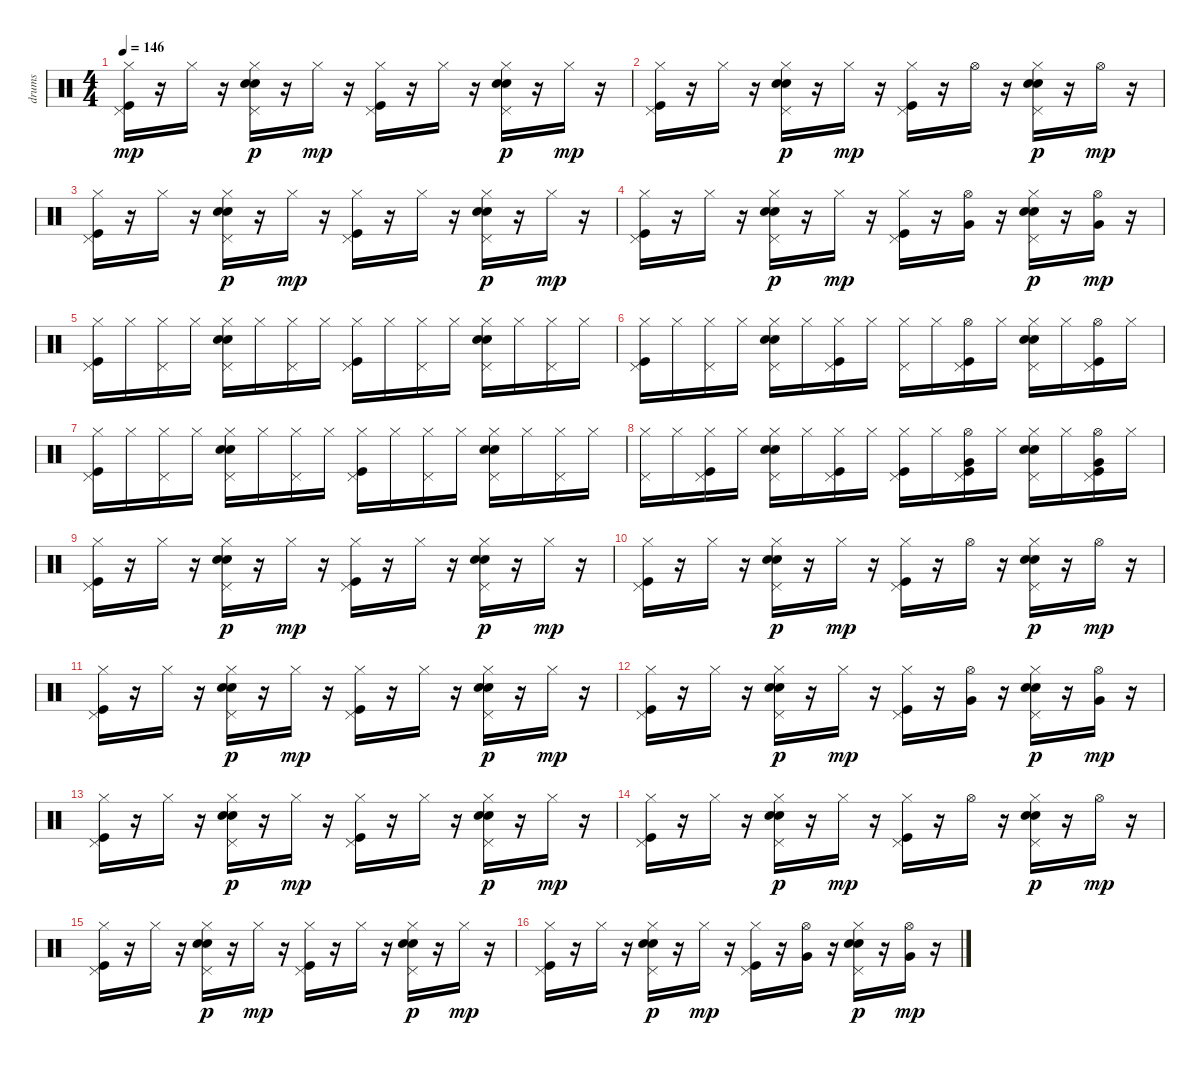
\track ("drums" "drums") {instrument percussion}
\staff {score}
\articulation defaults
\ts (4 4)
\tempo 146
\clef neutral
\ks c
("Kick (hit)" "Pedal Hi-Hat (hit)" "Hi-Hat (closed)").16{dy mp} r.16 "Hi-Hat (closed)".16 r.16 ("Pedal Hi-Hat (hit)" "Snare (hit) 2" "Hi-Hat (closed)" "Electric Snare (hit)").16{dy p} r.16 "Hi-Hat (closed)".16{dy mp} r.16 ("Kick (hit)" "Pedal Hi-Hat (hit)" "Hi-Hat (closed)").16 r.16 "Hi-Hat (closed)".16 r.16 ("Pedal Hi-Hat (hit)" "Snare (hit) 2" "Hi-Hat (closed)" "Electric Snare (hit)").16{dy p} r.16 "Hi-Hat (closed)".16{dy mp} r.16 |
("Kick (hit)" "Pedal Hi-Hat (hit)" "Hi-Hat (closed)").16 r.16 "Hi-Hat (closed)".16 r.16 ("Pedal Hi-Hat (hit)" "Snare (hit) 2" "Hi-Hat (closed)" "Electric Snare (hit)").16{dy p} r.16 "Hi-Hat (closed)".16{dy mp} r.16 ("Kick (hit)" "Pedal Hi-Hat (hit)" "Hi-Hat (closed)").16 r.16 "Hi-Hat (open)".16 r.16 ("Pedal Hi-Hat (hit)" "Snare (hit) 2" "Hi-Hat (closed)" "Electric Snare (hit)").16{dy p} r.16 "Hi-Hat (open)".16{dy mp} r.16 |
("Kick (hit)" "Pedal Hi-Hat (hit)" "Hi-Hat (closed)").16 r.16 "Hi-Hat (closed)".16 r.16 ("Pedal Hi-Hat (hit)" "Snare (hit) 2" "Hi-Hat (closed)" "Electric Snare (hit)").16{dy p} r.16 "Hi-Hat (closed)".16{dy mp} r.16 ("Kick (hit)" "Pedal Hi-Hat (hit)" "Hi-Hat (closed)").16 r.16 "Hi-Hat (closed)".16 r.16 ("Pedal Hi-Hat (hit)" "Snare (hit) 2" "Hi-Hat (closed)" "Electric Snare (hit)").16{dy p} r.16 "Hi-Hat (closed)".16{dy mp} r.16 |
("Kick (hit)" "Pedal Hi-Hat (hit)" "Hi-Hat (closed)").16 r.16 "Hi-Hat (closed)".16 r.16 ("Pedal Hi-Hat (hit)" "Snare (hit) 2" "Hi-Hat (closed)" "Electric Snare (hit)").16{dy p} r.16 "Hi-Hat (closed)".16{dy mp} r.16 ("Kick (hit)" "Pedal Hi-Hat (hit)" "Hi-Hat (closed)").16 r.16 ("Hi-Hat (open)" "Very Low Tom (hit)").16 r.16 ("Pedal Hi-Hat (hit)" "Snare (hit) 2" "Hi-Hat (closed)" "Electric Snare (hit)").16{dy p} r.16 ("Hi-Hat (open)" "Very Low Tom (hit)").16{dy mp} r.16 |
("Kick (hit)" "Pedal Hi-Hat (hit)" "Hi-Hat (closed)").16 "Hi-Hat (closed)".16 ("Hi-Hat (closed)" "Pedal Hi-Hat (hit)").16 "Hi-Hat (closed)".16 ("Snare (hit) 2" "Hi-Hat (closed)" "Electric Snare (hit)" "Pedal Hi-Hat (hit)").16 "Hi-Hat (closed)".16 ("Hi-Hat (closed)" "Pedal Hi-Hat (hit)").16 "Hi-Hat (closed)".16 ("Kick (hit)" "Hi-Hat (closed)" "Pedal Hi-Hat (hit)").16 "Hi-Hat (closed)".16 ("Hi-Hat (closed)" "Pedal Hi-Hat (hit)").16 "Hi-Hat (closed)".16 ("Snare (hit) 2" "Hi-Hat (closed)" "Electric Snare (hit)" "Pedal Hi-Hat (hit)").16 "Hi-Hat (closed)".16 ("Hi-Hat (closed)" "Pedal Hi-Hat (hit)").16 "Hi-Hat (closed)".16 |
("Kick (hit)" "Hi-Hat (closed)" "Pedal Hi-Hat (hit)").16 "Hi-Hat (closed)".16 ("Hi-Hat (closed)" "Pedal Hi-Hat (hit)").16 "Hi-Hat (closed)".16 ("Snare (hit) 2" "Hi-Hat (closed)" "Electric Snare (hit)" "Pedal Hi-Hat (hit)").16 "Hi-Hat (closed)".16 ("Hi-Hat (closed)" "Pedal Hi-Hat (hit)" "Kick (hit)").16 "Hi-Hat (closed)".16 ("Hi-Hat (closed)" "Pedal Hi-Hat (hit)").16 "Hi-Hat (closed)".16 ("Hi-Hat (open)" "Kick (hit)" "Pedal Hi-Hat (hit)").16 "Hi-Hat (closed)".16 ("Snare (hit) 2" "Hi-Hat (closed)" "Electric Snare (hit)" "Pedal Hi-Hat (hit)").16 "Hi-Hat (closed)".16 ("Hi-Hat (open)" "Kick (hit)" "Pedal Hi-Hat (hit)").16 "Hi-Hat (closed)".16 |
("Kick (hit)" "Hi-Hat (closed)" "Pedal Hi-Hat (hit)").16 "Hi-Hat (closed)".16 ("Hi-Hat (closed)" "Pedal Hi-Hat (hit)").16 "Hi-Hat (closed)".16 ("Snare (hit) 2" "Hi-Hat (closed)" "Electric Snare (hit)" "Pedal Hi-Hat (hit)").16 "Hi-Hat (closed)".16 ("Hi-Hat (closed)" "Pedal Hi-Hat (hit)").16 "Hi-Hat (closed)".16 ("Kick (hit)" "Hi-Hat (closed)" "Pedal Hi-Hat (hit)").16 "Hi-Hat (closed)".16 ("Hi-Hat (closed)" "Pedal Hi-Hat (hit)").16 "Hi-Hat (closed)".16 ("Snare (hit) 2" "Hi-Hat (closed)" "Electric Snare (hit)" "Pedal Hi-Hat (hit)").16 "Hi-Hat (closed)".16 ("Hi-Hat (closed)" "Pedal Hi-Hat (hit)").16 "Hi-Hat (closed)".16 |
("Hi-Hat (closed)" "Pedal Hi-Hat (hit)").16 "Hi-Hat (closed)".16 ("Hi-Hat (closed)" "Pedal Hi-Hat (hit)" "Kick (hit)").16 "Hi-Hat (closed)".16 ("Snare (hit) 2" "Hi-Hat (closed)" "Electric Snare (hit)" "Pedal Hi-Hat (hit)").16 "Hi-Hat (closed)".16 ("Hi-Hat (closed)" "Pedal Hi-Hat (hit)" "Kick (hit)").16 "Hi-Hat (closed)".16 ("Kick (hit)" "Hi-Hat (closed)" "Pedal Hi-Hat (hit)").16 "Hi-Hat (closed)".16 ("Hi-Hat (open)" "Very Low Tom (hit)" "Pedal Hi-Hat (hit)" "Kick (hit)").16 "Hi-Hat (closed)".16 ("Snare (hit) 2" "Hi-Hat (closed)" "Electric Snare (hit)" "Pedal Hi-Hat (hit)").16 "Hi-Hat (closed)".16 ("Hi-Hat (open)" "Very Low Tom (hit)" "Pedal Hi-Hat (hit)" "Kick (hit)").16 "Hi-Hat (closed)".16 |
("Kick (hit)" "Pedal Hi-Hat (hit)" "Hi-Hat (closed)").16 r.16 "Hi-Hat (closed)".16 r.16 ("Pedal Hi-Hat (hit)" "Snare (hit) 2" "Hi-Hat (closed)" "Electric Snare (hit)").16{dy p} r.16 "Hi-Hat (closed)".16{dy mp} r.16 ("Kick (hit)" "Pedal Hi-Hat (hit)" "Hi-Hat (closed)").16 r.16 "Hi-Hat (closed)".16 r.16 ("Pedal Hi-Hat (hit)" "Snare (hit) 2" "Hi-Hat (closed)" "Electric Snare (hit)").16{dy p} r.16 "Hi-Hat (closed)".16{dy mp} r.16 |
("Kick (hit)" "Pedal Hi-Hat (hit)" "Hi-Hat (closed)").16 r.16 "Hi-Hat (closed)".16 r.16 ("Pedal Hi-Hat (hit)" "Snare (hit) 2" "Hi-Hat (closed)" "Electric Snare (hit)").16{dy p} r.16 "Hi-Hat (closed)".16{dy mp} r.16 ("Kick (hit)" "Pedal Hi-Hat (hit)" "Hi-Hat (closed)").16 r.16 "Hi-Hat (open)".16 r.16 ("Pedal Hi-Hat (hit)" "Snare (hit) 2" "Hi-Hat (closed)" "Electric Snare (hit)").16{dy p} r.16 "Hi-Hat (open)".16{dy mp} r.16 |
("Kick (hit)" "Pedal Hi-Hat (hit)" "Hi-Hat (closed)").16 r.16 "Hi-Hat (closed)".16 r.16 ("Pedal Hi-Hat (hit)" "Snare (hit) 2" "Hi-Hat (closed)" "Electric Snare (hit)").16{dy p} r.16 "Hi-Hat (closed)".16{dy mp} r.16 ("Kick (hit)" "Pedal Hi-Hat (hit)" "Hi-Hat (closed)").16 r.16 "Hi-Hat (closed)".16 r.16 ("Pedal Hi-Hat (hit)" "Snare (hit) 2" "Hi-Hat (closed)" "Electric Snare (hit)").16{dy p} r.16 "Hi-Hat (closed)".16{dy mp} r.16 |
("Kick (hit)" "Pedal Hi-Hat (hit)" "Hi-Hat (closed)").16 r.16 "Hi-Hat (closed)".16 r.16 ("Pedal Hi-Hat (hit)" "Snare (hit) 2" "Hi-Hat (closed)" "Electric Snare (hit)").16{dy p} r.16 "Hi-Hat (closed)".16{dy mp} r.16 ("Kick (hit)" "Pedal Hi-Hat (hit)" "Hi-Hat (closed)").16 r.16 ("Hi-Hat (open)" "Very Low Tom (hit)").16 r.16 ("Pedal Hi-Hat (hit)" "Snare (hit) 2" "Hi-Hat (closed)" "Electric Snare (hit)").16{dy p} r.16 ("Hi-Hat (open)" "Very Low Tom (hit)").16{dy mp} r.16 |
("Kick (hit)" "Pedal Hi-Hat (hit)" "Hi-Hat (closed)").16 r.16 "Hi-Hat (closed)".16 r.16 ("Pedal Hi-Hat (hit)" "Snare (hit) 2" "Hi-Hat (closed)" "Electric Snare (hit)").16{dy p} r.16 "Hi-Hat (closed)".16{dy mp} r.16 ("Kick (hit)" "Pedal Hi-Hat (hit)" "Hi-Hat (closed)").16 r.16 "Hi-Hat (closed)".16 r.16 ("Pedal Hi-Hat (hit)" "Snare (hit) 2" "Hi-Hat (closed)" "Electric Snare (hit)").16{dy p} r.16 "Hi-Hat (closed)".16{dy mp} r.16 |
("Kick (hit)" "Pedal Hi-Hat (hit)" "Hi-Hat (closed)").16 r.16 "Hi-Hat (closed)".16 r.16 ("Pedal Hi-Hat (hit)" "Snare (hit) 2" "Hi-Hat (closed)" "Electric Snare (hit)").16{dy p} r.16 "Hi-Hat (closed)".16{dy mp} r.16 ("Kick (hit)" "Pedal Hi-Hat (hit)" "Hi-Hat (closed)").16 r.16 "Hi-Hat (open)".16 r.16 ("Pedal Hi-Hat (hit)" "Snare (hit) 2" "Hi-Hat (closed)" "Electric Snare (hit)").16{dy p} r.16 "Hi-Hat (open)".16{dy mp} r.16 |
("Kick (hit)" "Pedal Hi-Hat (hit)" "Hi-Hat (closed)").16 r.16 "Hi-Hat (closed)".16 r.16 ("Pedal Hi-Hat (hit)" "Snare (hit) 2" "Hi-Hat (closed)" "Electric Snare (hit)").16{dy p} r.16 "Hi-Hat (closed)".16{dy mp} r.16 ("Kick (hit)" "Pedal Hi-Hat (hit)" "Hi-Hat (closed)").16 r.16 "Hi-Hat (closed)".16 r.16 ("Pedal Hi-Hat (hit)" "Snare (hit) 2" "Hi-Hat (closed)" "Electric Snare (hit)").16{dy p} r.16 "Hi-Hat (closed)".16{dy mp} r.16 |
("Kick (hit)" "Pedal Hi-Hat (hit)" "Hi-Hat (closed)").16 r.16 "Hi-Hat (closed)".16 r.16 ("Pedal Hi-Hat (hit)" "Snare (hit) 2" "Hi-Hat (closed)" "Electric Snare (hit)").16{dy p} r.16 "Hi-Hat (closed)".16{dy mp} r.16 ("Kick (hit)" "Pedal Hi-Hat (hit)" "Hi-Hat (closed)").16 r.16 ("Hi-Hat (open)" "Very Low Tom (hit)").16 r.16 ("Pedal Hi-Hat (hit)" "Snare (hit) 2" "Hi-Hat (closed)" "Electric Snare (hit)").16{dy p} r.16 ("Hi-Hat (open)" "Very Low Tom (hit)").16{dy mp} r.16
